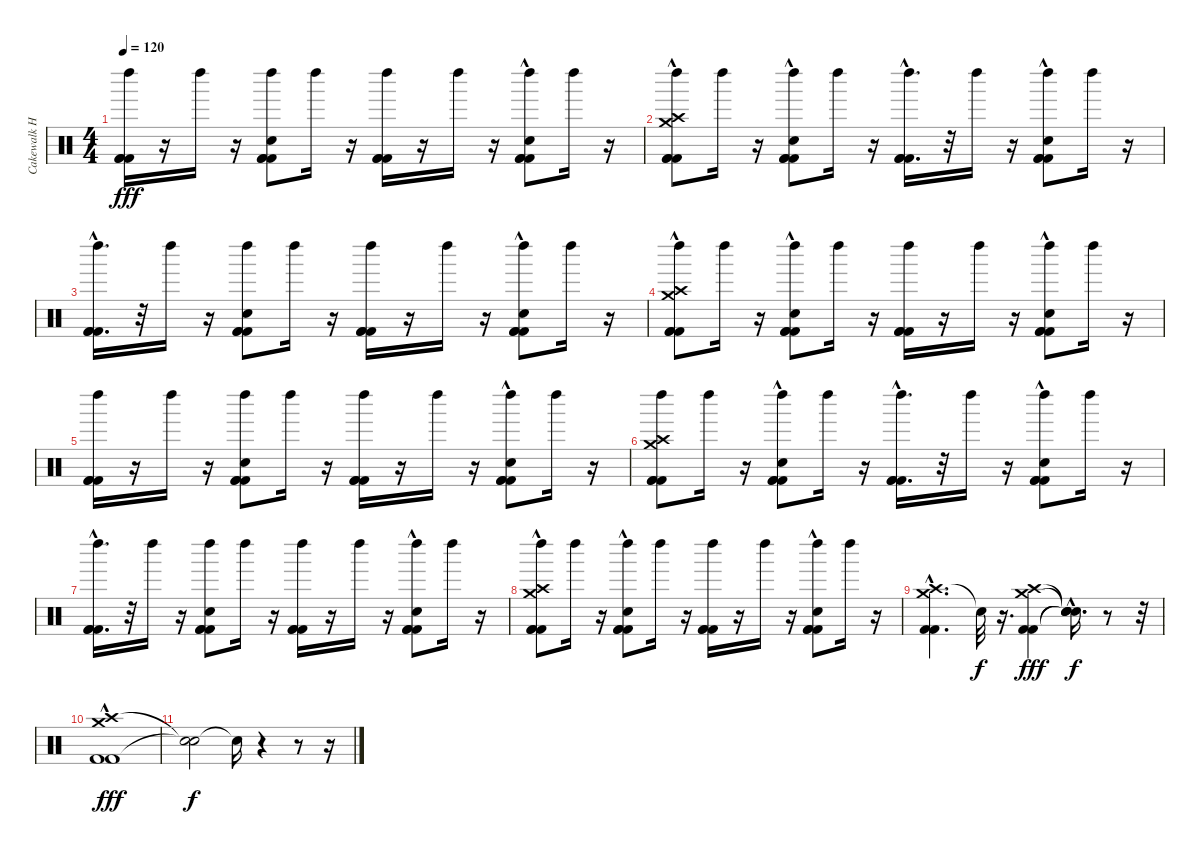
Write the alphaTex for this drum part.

\track ("Cakewalk Home Studio 5.0" "Cakewalk H") {instrument percussion}
\staff {score}
\articulation defaults
\ts (4 4)
\tempo 120
\clef neutral
\ks c
("Kick (hit) 2" "Kick (hit) 2" "Kick (hit) 2" "Left Maraca (hit)").16{dy fff} r.16 "Left Maraca (hit)".16 r.16 ("Kick (hit) 2" "Left Maraca (hit)" "Kick (hit) 2" "Kick (hit) 2" "Hand Clap (hit)").8 "Left Maraca (hit)".16 r.16 ("Left Maraca (hit)" "Kick (hit) 2" "Kick (hit) 2" "Kick (hit) 2").16 r.16 "Left Maraca (hit)".16 r.16 ("Kick (hit) 2"{hac} "Left Maraca (hit)" "Kick (hit) 2"{hac} "Hand Clap (hit)" "Kick (hit) 2"{hac}).8 "Left Maraca (hit)".16 r.16 |
("Kick (hit) 2" "Left Maraca (hit)" "Kick (hit) 2" "Kick (hit) 2" "Crash high (hit)"{hac} "Crash medium (hit)"{hac}).8 "Left Maraca (hit)".16 r.16 ("Hand Clap (hit)" "Kick (hit) 2"{hac} "Left Maraca (hit)" "Kick (hit) 2"{hac} "Kick (hit) 2"{hac}).8 "Left Maraca (hit)".16 r.16 ("Kick (hit) 2"{hac} "Kick (hit) 2"{hac} "Left Maraca (hit)" "Kick (hit) 2"{hac}).16{d} r.32 "Left Maraca (hit)".16 r.16 ("Hand Clap (hit)" "Left Maraca (hit)" "Kick (hit) 2"{hac} "Kick (hit) 2"{hac} "Kick (hit) 2"{hac}).8 "Left Maraca (hit)".16 r.16 |
("Kick (hit) 2"{hac} "Kick (hit) 2"{hac} "Kick (hit) 2"{hac} "Left Maraca (hit)").16{d} r.32 "Left Maraca (hit)".16 r.16 ("Kick (hit) 2" "Hand Clap (hit)" "Left Maraca (hit)" "Kick (hit) 2" "Kick (hit) 2").8 "Left Maraca (hit)".16 r.16 ("Kick (hit) 2" "Kick (hit) 2" "Left Maraca (hit)" "Kick (hit) 2").16 r.16 "Left Maraca (hit)".16 r.16 ("Left Maraca (hit)" "Kick (hit) 2"{hac} "Kick (hit) 2"{hac} "Kick (hit) 2"{hac} "Hand Clap (hit)").8 "Left Maraca (hit)".16 r.16 |
("Kick (hit) 2"{hac} "Kick (hit) 2"{hac} "Left Maraca (hit)" "Kick (hit) 2"{hac} "Crash medium (hit)" "Crash high (hit)").8 "Left Maraca (hit)".16 r.16 ("Kick (hit) 2"{hac} "Kick (hit) 2"{hac} "Hand Clap (hit)" "Left Maraca (hit)" "Kick (hit) 2"{hac}).8 "Left Maraca (hit)".16 r.16 ("Kick (hit) 2" "Kick (hit) 2" "Kick (hit) 2" "Left Maraca (hit)").16 r.16 "Left Maraca (hit)".16 r.16 ("Kick (hit) 2"{hac} "Kick (hit) 2"{hac} "Hand Clap (hit)" "Left Maraca (hit)" "Kick (hit) 2"{hac}).8 "Left Maraca (hit)".16 r.16 |
("Kick (hit) 2" "Kick (hit) 2" "Kick (hit) 2" "Left Maraca (hit)").16 r.16 "Left Maraca (hit)".16 r.16 ("Kick (hit) 2" "Left Maraca (hit)" "Kick (hit) 2" "Kick (hit) 2" "Hand Clap (hit)").8 "Left Maraca (hit)".16 r.16 ("Left Maraca (hit)" "Kick (hit) 2" "Kick (hit) 2" "Kick (hit) 2").16 r.16 "Left Maraca (hit)".16 r.16 ("Kick (hit) 2"{hac} "Left Maraca (hit)" "Kick (hit) 2"{hac} "Hand Clap (hit)" "Kick (hit) 2"{hac}).8 "Left Maraca (hit)".16 r.16 |
("Kick (hit) 2" "Left Maraca (hit)" "Kick (hit) 2" "Kick (hit) 2" "Crash high (hit)" "Crash medium (hit)").8 "Left Maraca (hit)".16 r.16 ("Hand Clap (hit)" "Kick (hit) 2"{hac} "Left Maraca (hit)" "Kick (hit) 2"{hac} "Kick (hit) 2"{hac}).8 "Left Maraca (hit)".16 r.16 ("Kick (hit) 2"{hac} "Kick (hit) 2"{hac} "Left Maraca (hit)" "Kick (hit) 2"{hac}).16{d} r.32 "Left Maraca (hit)".16 r.16 ("Hand Clap (hit)" "Left Maraca (hit)" "Kick (hit) 2"{hac} "Kick (hit) 2"{hac} "Kick (hit) 2"{hac}).8 "Left Maraca (hit)".16 r.16 |
("Kick (hit) 2"{hac} "Kick (hit) 2"{hac} "Kick (hit) 2"{hac} "Left Maraca (hit)").16{d} r.32 "Left Maraca (hit)".16 r.16 ("Kick (hit) 2" "Hand Clap (hit)" "Left Maraca (hit)" "Kick (hit) 2" "Kick (hit) 2").8 "Left Maraca (hit)".16 r.16 ("Kick (hit) 2" "Kick (hit) 2" "Left Maraca (hit)" "Kick (hit) 2").16 r.16 "Left Maraca (hit)".16 r.16 ("Left Maraca (hit)" "Kick (hit) 2"{hac} "Kick (hit) 2"{hac} "Kick (hit) 2"{hac} "Hand Clap (hit)").8 "Left Maraca (hit)".16 r.16 |
("Kick (hit) 2"{hac} "Kick (hit) 2"{hac} "Left Maraca (hit)" "Kick (hit) 2"{hac} "Crash high (hit)"{hac} "Crash medium (hit)"{hac}).8 "Left Maraca (hit)".16 r.16 ("Kick (hit) 2"{hac} "Kick (hit) 2"{hac} "Hand Clap (hit)" "Left Maraca (hit)" "Kick (hit) 2"{hac}).8 "Left Maraca (hit)".16 r.16 ("Kick (hit) 2" "Kick (hit) 2" "Kick (hit) 2" "Left Maraca (hit)").16 r.16 "Left Maraca (hit)".16 r.16 ("Kick (hit) 2"{hac} "Kick (hit) 2"{hac} "Hand Clap (hit)" "Left Maraca (hit)" "Kick (hit) 2"{hac}).8 "Left Maraca (hit)".16 r.16 |
("Crash high (hit)" "Kick (hit) 2" "Kick (hit) 2" "Crash medium (hit)"{hac}).4{d} "Snare (hit)"{t}.32{dy f} r.16{d} ("Crash high (hit)" "Kick (hit) 2" "Kick (hit) 2" "Crash medium (hit)").4{dy fff} ("Snare (hit)"{t} "Snare (hit)"{t} "Snare (hit)"{t} "Snare (hit)"{hac t}).16{d dy f} r.8 r.32 |
("Crash high (hit)" "Kick (hit) 2"{hac} "Kick (hit) 2"{hac} "Crash medium (hit)").1{dy fff} |
("Snare (hit)"{t} "Snare (hit)"{t}).2{dy f} "Snare (hit)"{t}.16 r.4 r.8 r.16
